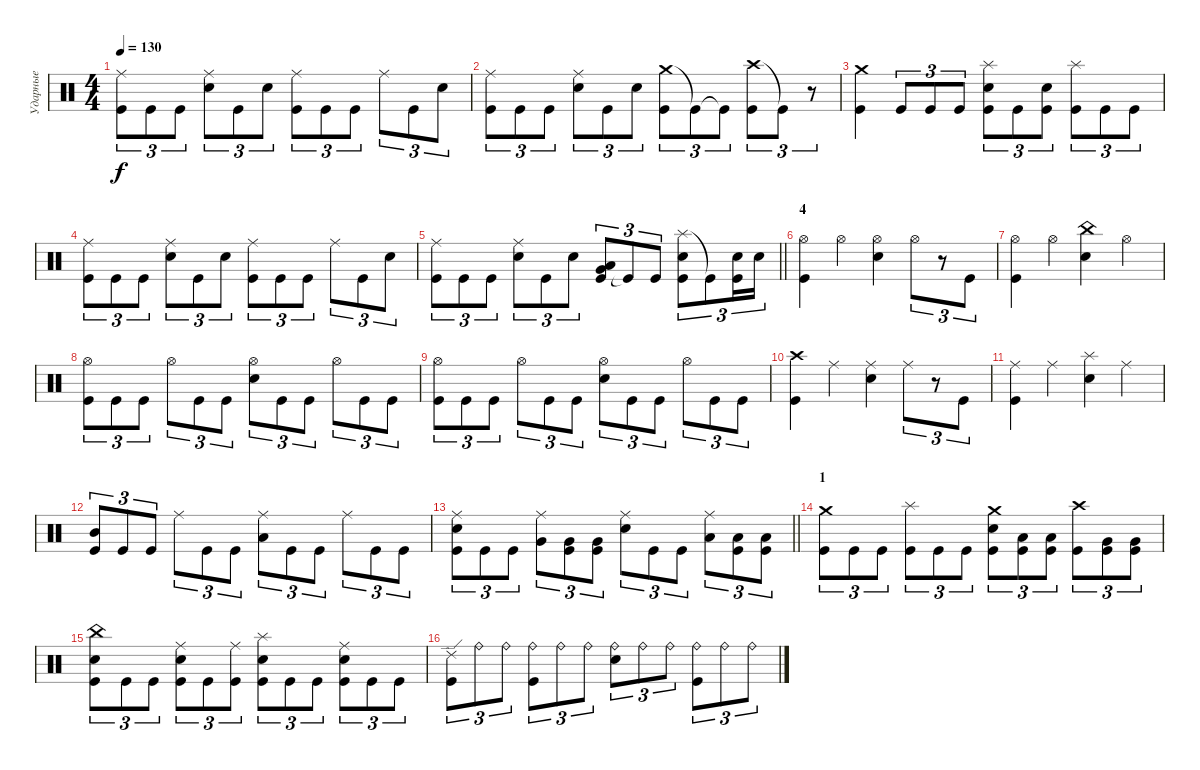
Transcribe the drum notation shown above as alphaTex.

\track ("Ударные" "Ударные") {instrument percussion}
\staff {score}
\articulation defaults
\ts (4 4)
\tempo 130
\clef neutral
\ks c
("Ride (middle)" "Kick (hit)").8{tu (3 2) dy f} "Kick (hit)".8{tu (3 2)} "Kick (hit)".8{tu (3 2)} ("Ride (middle)" "Electric Snare (hit)").8{tu (3 2)} "Kick (hit)".8{tu (3 2)} "Electric Snare (hit)".8{tu (3 2)} ("Ride (middle)" "Kick (hit)").8{tu (3 2)} "Kick (hit)".8{tu (3 2)} "Kick (hit)".8{tu (3 2)} "Ride (middle)".8{tu (3 2)} "Kick (hit)".8{tu (3 2)} "Electric Snare (hit)".8{tu (3 2)} |
("Ride (middle)" "Kick (hit)").8{tu (3 2)} "Kick (hit)".8{tu (3 2)} "Kick (hit)".8{tu (3 2)} ("Ride (middle)" "Electric Snare (hit)").8{tu (3 2)} "Kick (hit)".8{tu (3 2)} "Electric Snare (hit)".8{tu (3 2)} ("Crash medium (hit)" "Kick (hit)").8{tu (3 2)} "Kick (hit)"{t}.8{tu (3 2)} "Kick (hit)"{t}.8{tu (3 2)} ("Crash high (hit)" "Kick (hit)").8{tu (3 2)} "Kick (hit)"{t}.8{tu (3 2)} r.8{tu (3 2)} |
("Crash medium (hit)" "Kick (hit)").4 "Kick (hit)".8{tu (3 2)} "Kick (hit)".8{tu (3 2)} "Kick (hit)".8{tu (3 2)} ("Splash (hit)" "Electric Snare (hit)" "Kick (hit)").8{tu (3 2)} "Kick (hit)".8{tu (3 2)} ("Electric Snare (hit)" "Kick (hit)").8{tu (3 2)} ("Splash (hit)" "Kick (hit)").8{tu (3 2)} "Kick (hit)".8{tu (3 2)} "Kick (hit)".8{tu (3 2)} |
("Ride (middle)" "Kick (hit)").8{tu (3 2)} "Kick (hit)".8{tu (3 2)} "Kick (hit)".8{tu (3 2)} ("Ride (middle)" "Electric Snare (hit)").8{tu (3 2)} "Kick (hit)".8{tu (3 2)} "Electric Snare (hit)".8{tu (3 2)} ("Ride (middle)" "Kick (hit)").8{tu (3 2)} "Kick (hit)".8{tu (3 2)} "Kick (hit)".8{tu (3 2)} "Ride (middle)".8{tu (3 2)} "Kick (hit)".8{tu (3 2)} "Electric Snare (hit)".8{tu (3 2)} |
\barLineRight lightlight
("Ride (middle)" "Kick (hit)").8{tu (3 2)} "Kick (hit)".8{tu (3 2)} "Kick (hit)".8{tu (3 2)} ("Ride (middle)" "Electric Snare (hit)").8{tu (3 2)} "Kick (hit)".8{tu (3 2)} "Electric Snare (hit)".8{tu (3 2)} ("Very Low Tom (hit)" "Low Tom (hit)" "Kick (hit)").8{tu (3 2)} "Kick (hit)"{t}.8{tu (3 2)} "Kick (hit)".8{tu (3 2)} ("Splash (hit)" "Electric Snare (hit)" "Kick (hit)").8{tu (3 2)} "Kick (hit)"{t}.8{tu (3 2)} ("Electric Snare (hit)" "Kick (hit)").16{tu (3 2)} "Electric Snare (hit)".16{tu (3 2)} |
\section ("" "4")
("Hi-Hat (open)" "Kick (hit)").4 "Hi-Hat (open)".4 ("Hi-Hat (open)" "Electric Snare (hit)").4 "Hi-Hat (open)".8{tu (3 2)} r.8{tu (3 2)} "Kick (hit)".8{tu (3 2)} |
("Hi-Hat (open)" "Kick (hit)").4 "Hi-Hat (open)".4 ("China (hit)" "Electric Snare (hit)").4 "Hi-Hat (open)".4 |
("Hi-Hat (open)" "Kick (hit)").8{tu (3 2)} "Kick (hit)".8{tu (3 2)} "Kick (hit)".8{tu (3 2)} "Hi-Hat (open)".8{tu (3 2)} "Kick (hit)".8{tu (3 2)} "Kick (hit)".8{tu (3 2)} ("Hi-Hat (open)" "Electric Snare (hit)").8{tu (3 2)} "Kick (hit)".8{tu (3 2)} "Kick (hit)".8{tu (3 2)} "Hi-Hat (open)".8{tu (3 2)} "Kick (hit)".8{tu (3 2)} "Kick (hit)".8{tu (3 2)} |
("Hi-Hat (open)" "Kick (hit)").8{tu (3 2)} "Kick (hit)".8{tu (3 2)} "Kick (hit)".8{tu (3 2)} "Hi-Hat (open)".8{tu (3 2)} "Kick (hit)".8{tu (3 2)} "Kick (hit)".8{tu (3 2)} ("Hi-Hat (open)" "Electric Snare (hit)").8{tu (3 2)} "Kick (hit)".8{tu (3 2)} "Kick (hit)".8{tu (3 2)} "Hi-Hat (open)".8{tu (3 2)} "Kick (hit)".8{tu (3 2)} "Kick (hit)".8{tu (3 2)} |
("Crash high (hit)" "Kick (hit)").4 "Ride (middle)".4 ("Ride (middle)" "Electric Snare (hit)").4 "Ride (middle)".8{tu (3 2)} r.8{tu (3 2)} "Kick (hit)".8{tu (3 2)} |
("Ride (middle)" "Kick (hit)").4 "Ride (middle)".4 ("Splash (hit)" "Electric Snare (hit)").4 "Ride (middle)".4 |
("Mid Tom (hit)" "Kick (hit)").8{tu (3 2)} "Kick (hit)".8{tu (3 2)} "Kick (hit)".8{tu (3 2)} "Ride (middle)".8{tu (3 2)} "Kick (hit)".8{tu (3 2)} "Kick (hit)".8{tu (3 2)} ("Ride (middle)" "Low Tom (hit)").8{tu (3 2)} "Kick (hit)".8{tu (3 2)} "Kick (hit)".8{tu (3 2)} "Ride (middle)".8{tu (3 2)} "Kick (hit)".8{tu (3 2)} "Kick (hit)".8{tu (3 2)} |
\barLineRight lightlight
("Ride (middle)" "Electric Snare (hit)" "Kick (hit)").8{tu (3 2)} "Kick (hit)".8{tu (3 2)} "Kick (hit)".8{tu (3 2)} ("Ride (middle)" "Very Low Tom (hit)").8{tu (3 2)} ("Very Low Tom (hit)" "Kick (hit)").8{tu (3 2)} ("Very Low Tom (hit)" "Kick (hit)").8{tu (3 2)} ("Ride (middle)" "Electric Snare (hit)").8{tu (3 2)} "Kick (hit)".8{tu (3 2)} "Kick (hit)".8{tu (3 2)} ("Ride (middle)" "Low Tom (hit)").8{tu (3 2)} ("Low Tom (hit)" "Kick (hit)").8{tu (3 2)} ("Low Tom (hit)" "Kick (hit)").8{tu (3 2)} |
\section ("" "1")
("Crash medium (hit)" "Kick (hit)").8{tu (3 2)} "Kick (hit)".8{tu (3 2)} "Kick (hit)".8{tu (3 2)} ("Splash (hit)" "Kick (hit)").8{tu (3 2)} "Kick (hit)".8{tu (3 2)} "Kick (hit)".8{tu (3 2)} ("Crash medium (hit)" "Electric Snare (hit)" "Kick (hit)").8{tu (3 2)} ("Low Tom (hit)" "Kick (hit)").8{tu (3 2)} ("Low Tom (hit)" "Kick (hit)").8{tu (3 2)} ("Crash high (hit)" "Kick (hit)").8{tu (3 2)} ("Very Low Tom (hit)" "Kick (hit)").8{tu (3 2)} ("Very Low Tom (hit)" "Kick (hit)").8{tu (3 2)} |
("China (hit)" "Electric Snare (hit)" "Kick (hit)").8{tu (3 2)} "Kick (hit)".8{tu (3 2)} "Kick (hit)".8{tu (3 2)} ("Ride (middle)" "Electric Snare (hit)" "Kick (hit)").8{tu (3 2)} "Kick (hit)".8{tu (3 2)} ("Ride (middle)" "Kick (hit)").8{tu (3 2)} ("Splash (hit)" "Electric Snare (hit)" "Kick (hit)").8{tu (3 2)} "Kick (hit)".8{tu (3 2)} "Kick (hit)".8{tu (3 2)} ("Ride (middle)" "Electric Snare (hit)" "Kick (hit)").8{tu (3 2)} "Kick (hit)".8{tu (3 2)} "Kick (hit)".8{tu (3 2)} |
("Ride (edge) 2" "Kick (hit)").8{tu (3 2)} "Ride (bell)".8{tu (3 2)} "Ride (bell)".8{tu (3 2)} ("Ride (bell)" "Kick (hit)").8{tu (3 2)} "Ride (bell)".8{tu (3 2)} "Ride (bell)".8{tu (3 2)} ("Ride (bell)" "Electric Snare (hit)").8{tu (3 2)} "Ride (bell)".8{tu (3 2)} "Ride (bell)".8{tu (3 2)} ("Ride (bell)" "Kick (hit)").8{tu (3 2)} "Ride (bell)".8{tu (3 2)} "Ride (bell)".8{tu (3 2)}
